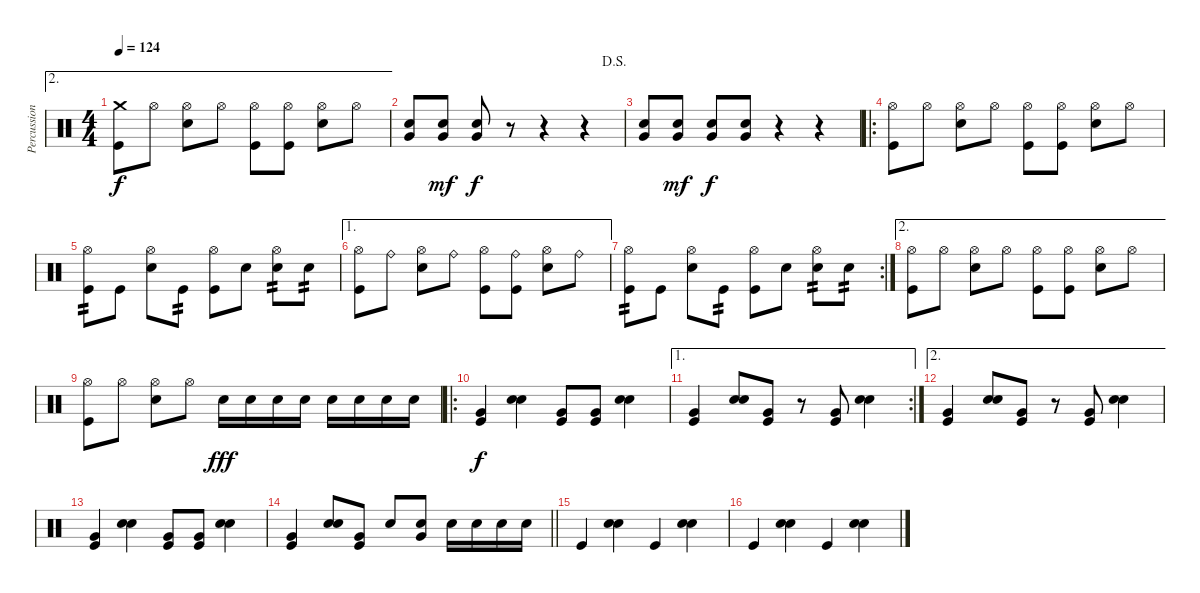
\track ("Percussion" "Percussion") {instrument percussion}
\staff {score}
\articulation defaults
\ae 2
\ts (4 4)
\tempo 124
\clef neutral
\ks c
("Crash medium (hit)" "Kick (hit)").8{dy f} "Hi-Hat (open)".8 ("Hi-Hat (open)" "Snare (hit) 2").8 "Hi-Hat (open)".8 ("Hi-Hat (open)" "Kick (hit)").8 ("Hi-Hat (open)" "Kick (hit)").8 ("Hi-Hat (open)" "Snare (hit) 2").8 "Hi-Hat (open)".8 |
\jump dalsegno
("Very Low Tom (hit)" "Snare (hit) 2").8 ("Very Low Tom (hit)" "Snare (hit) 2").8{dy mf} ("Very Low Tom (hit)" "Snare (hit) 2").8{dy f} r.8 r.4 r.4 |
("Very Low Tom (hit)" "Snare (hit) 2").8 ("Very Low Tom (hit)" "Snare (hit) 2").8{dy mf} ("Very Low Tom (hit)" "Snare (hit) 2").8{dy f} ("Very Low Tom (hit)" "Snare (hit) 2").8 r.4 r.4 |
\ro
("Hi-Hat (open)" "Kick (hit)").8 "Hi-Hat (open)".8 ("Hi-Hat (open)" "Snare (hit) 2").8 "Hi-Hat (open)".8 ("Hi-Hat (open)" "Kick (hit)").8 ("Hi-Hat (open)" "Kick (hit)").8 ("Hi-Hat (open)" "Snare (hit) 2").8 "Hi-Hat (open)".8 |
("Hi-Hat (open)" "Kick (hit)").8{tp 2} "Kick (hit)".8 ("Hi-Hat (open)" "Snare (hit) 2").8 "Kick (hit)".8{tp 2} ("Hi-Hat (open)" "Kick (hit)").8 "Snare (hit) 2".8 ("Hi-Hat (open)" "Snare (hit) 2").8{tp 2} "Snare (hit) 2".8{tp 2} |
\ae 1
("Hi-Hat (open)" "Kick (hit)").8 "Ride (bell)".8 ("Hi-Hat (open)" "Snare (hit) 2").8 "Ride (bell)".8 ("Hi-Hat (open)" "Kick (hit)").8 ("Ride (bell)" "Kick (hit)").8 ("Hi-Hat (open)" "Snare (hit) 2").8 "Ride (bell)".8 |
\rc 2
("Hi-Hat (open)" "Kick (hit)").8{tp 2} "Kick (hit)".8 ("Hi-Hat (open)" "Snare (hit) 2").8 "Kick (hit)".8{tp 2} ("Hi-Hat (open)" "Kick (hit)").8 "Snare (hit) 2".8 ("Hi-Hat (open)" "Snare (hit) 2").8{tp 2} "Snare (hit) 2".8{tp 2} |
\ae 2
("Hi-Hat (open)" "Kick (hit)").8 "Hi-Hat (open)".8 ("Hi-Hat (open)" "Snare (hit) 2").8 "Hi-Hat (open)".8 ("Hi-Hat (open)" "Kick (hit)").8 ("Hi-Hat (open)" "Kick (hit)").8 ("Hi-Hat (open)" "Snare (hit) 2").8 "Hi-Hat (open)".8 |
("Hi-Hat (open)" "Kick (hit)").8 "Hi-Hat (open)".8 ("Hi-Hat (open)" "Snare (hit) 2").8 "Hi-Hat (open)".8 "Snare (hit) 2".16{dy fff} "Snare (hit) 2".16 "Snare (hit) 2".16 "Snare (hit) 2".16 "Snare (hit) 2".16 "Snare (hit) 2".16 "Snare (hit) 2".16 "Snare (hit) 2".16 |
\ro
("Kick (hit)" "Very Low Tom (hit)").4{dy f} ("Snare (hit) 2" "Hand Clap (hit)").4 ("Kick (hit)" "Very Low Tom (hit)").8 ("Kick (hit)" "Very Low Tom (hit)").8 ("Snare (hit) 2" "Hand Clap (hit)").4 |
\ae 1
\rc 2
("Kick (hit)" "Very Low Tom (hit)").4 ("Snare (hit) 2" "Hand Clap (hit)").8 ("Kick (hit)" "Very Low Tom (hit)").8 r.8 ("Kick (hit)" "Very Low Tom (hit)").8 ("Snare (hit) 2" "Hand Clap (hit)").4 |
\ae 2
("Kick (hit)" "Very Low Tom (hit)").4 ("Snare (hit) 2" "Hand Clap (hit)").8 ("Kick (hit)" "Very Low Tom (hit)").8 r.8 ("Kick (hit)" "Very Low Tom (hit)").8 ("Snare (hit) 2" "Hand Clap (hit)").4 |
("Kick (hit)" "Very Low Tom (hit)").4 ("Snare (hit) 2" "Hand Clap (hit)").4 ("Kick (hit)" "Very Low Tom (hit)").8 ("Kick (hit)" "Very Low Tom (hit)").8 ("Snare (hit) 2" "Hand Clap (hit)").4 |
\barLineRight lightlight
("Kick (hit)" "Very Low Tom (hit)").4 ("Snare (hit) 2" "Hand Clap (hit)").8 ("Kick (hit)" "Very Low Tom (hit)").8 "Snare (hit) 2".8 ("Snare (hit) 2" "Very Low Tom (hit)").8 "Snare (hit) 2".16 "Snare (hit) 2".16 "Snare (hit) 2".16 "Snare (hit) 2".16 |
"Kick (hit)".4 ("Snare (hit) 2" "Hand Clap (hit)").4 "Kick (hit)".4 ("Snare (hit) 2" "Hand Clap (hit)").4 |
"Kick (hit)".4 ("Snare (hit) 2" "Hand Clap (hit)").4 "Kick (hit)".4 ("Snare (hit) 2" "Hand Clap (hit)").4
